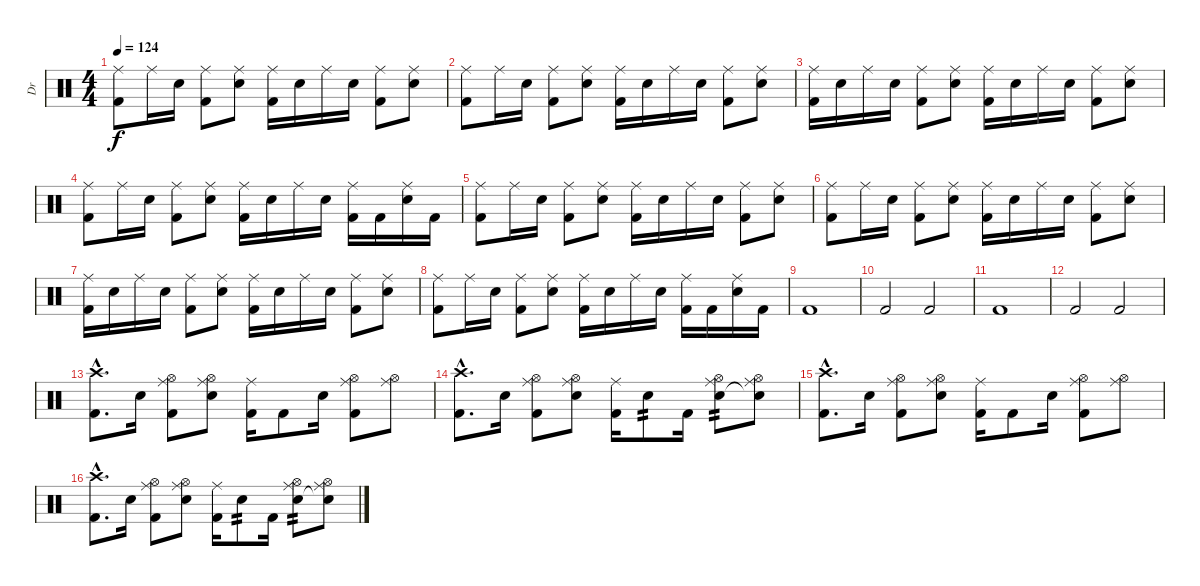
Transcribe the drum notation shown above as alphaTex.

\track ("Dr" "Dr") {instrument percussion}
\staff {score}
\articulation defaults
\ts (4 4)
\tempo 124
\clef neutral
\ks c
("Ride (middle)" "Kick (hit) 2").8{dy f} "Ride (middle)".16 "Electric Snare (hit)".16 ("Ride (middle)" "Kick (hit) 2").8 ("Ride (middle)" "Electric Snare (hit)").8 ("Ride (middle)" "Kick (hit) 2").16 "Electric Snare (hit)".16 "Ride (middle)".16 "Electric Snare (hit)".16 ("Ride (middle)" "Kick (hit) 2").8 ("Ride (middle)" "Electric Snare (hit)").8 |
("Ride (middle)" "Kick (hit) 2").8 "Ride (middle)".16 "Electric Snare (hit)".16 ("Ride (middle)" "Kick (hit) 2").8 ("Ride (middle)" "Electric Snare (hit)").8 ("Ride (middle)" "Kick (hit) 2").16 "Electric Snare (hit)".16 "Ride (middle)".16 "Electric Snare (hit)".16 ("Ride (middle)" "Kick (hit) 2").8 ("Ride (middle)" "Electric Snare (hit)").8 |
("Ride (middle)" "Kick (hit) 2").16 "Electric Snare (hit)".16 "Ride (middle)".16 "Electric Snare (hit)".16 ("Ride (middle)" "Kick (hit) 2").8 ("Ride (middle)" "Electric Snare (hit)").8 ("Ride (middle)" "Kick (hit) 2").16 "Electric Snare (hit)".16 "Ride (middle)".16 "Electric Snare (hit)".16 ("Ride (middle)" "Kick (hit) 2").8 ("Ride (middle)" "Electric Snare (hit)").8 |
("Ride (middle)" "Kick (hit) 2").8 "Ride (middle)".16 "Electric Snare (hit)".16 ("Ride (middle)" "Kick (hit) 2").8 ("Ride (middle)" "Electric Snare (hit)").8 ("Ride (middle)" "Kick (hit) 2").16 "Electric Snare (hit)".16 "Ride (middle)".16 "Electric Snare (hit)".16 ("Ride (middle)" "Kick (hit) 2").16 "Kick (hit) 2".16 ("Ride (middle)" "Electric Snare (hit)").16 "Kick (hit) 2".16 |
("Ride (middle)" "Kick (hit) 2").8 "Ride (middle)".16 "Electric Snare (hit)".16 ("Ride (middle)" "Kick (hit) 2").8 ("Ride (middle)" "Electric Snare (hit)").8 ("Ride (middle)" "Kick (hit) 2").16 "Electric Snare (hit)".16 "Ride (middle)".16 "Electric Snare (hit)".16 ("Ride (middle)" "Kick (hit) 2").8 ("Ride (middle)" "Electric Snare (hit)").8 |
("Ride (middle)" "Kick (hit) 2").8 "Ride (middle)".16 "Electric Snare (hit)".16 ("Ride (middle)" "Kick (hit) 2").8 ("Ride (middle)" "Electric Snare (hit)").8 ("Ride (middle)" "Kick (hit) 2").16 "Electric Snare (hit)".16 "Ride (middle)".16 "Electric Snare (hit)".16 ("Ride (middle)" "Kick (hit) 2").8 ("Ride (middle)" "Electric Snare (hit)").8 |
("Ride (middle)" "Kick (hit) 2").16 "Electric Snare (hit)".16 "Ride (middle)".16 "Electric Snare (hit)".16 ("Ride (middle)" "Kick (hit) 2").8 ("Ride (middle)" "Electric Snare (hit)").8 ("Ride (middle)" "Kick (hit) 2").16 "Electric Snare (hit)".16 "Ride (middle)".16 "Electric Snare (hit)".16 ("Ride (middle)" "Kick (hit) 2").8 ("Ride (middle)" "Electric Snare (hit)").8 |
("Ride (middle)" "Kick (hit) 2").8 "Ride (middle)".16 "Electric Snare (hit)".16 ("Ride (middle)" "Kick (hit) 2").8 ("Ride (middle)" "Electric Snare (hit)").8 ("Ride (middle)" "Kick (hit) 2").16 "Electric Snare (hit)".16 "Ride (middle)".16 "Electric Snare (hit)".16 ("Ride (middle)" "Kick (hit) 2").16 "Kick (hit) 2".16 ("Ride (middle)" "Electric Snare (hit)").16 "Kick (hit) 2".16 |
"Kick (hit) 2".1 |
"Kick (hit) 2".2 "Kick (hit) 2".2 |
"Kick (hit) 2".1 |
"Kick (hit) 2".2 "Kick (hit) 2".2 |
("Crash high (hit)"{hac} "Kick (hit) 2"{hac}).8{d} "Electric Snare (hit)".16 ("Ride (middle)" "Hi-Hat (open)" "Kick (hit) 2").8 ("Ride (middle)" "Hi-Hat (open)" "Electric Snare (hit)").8 ("Ride (middle)" "Kick (hit) 2").16 "Kick (hit) 2".8 "Electric Snare (hit)".16 ("Ride (middle)" "Hi-Hat (open)" "Kick (hit) 2").8 ("Ride (middle)" "Hi-Hat (open)").8 |
("Crash high (hit)"{hac} "Kick (hit) 2"{hac}).8{d} "Electric Snare (hit)".16 ("Ride (middle)" "Hi-Hat (open)" "Kick (hit) 2").8 ("Ride (middle)" "Hi-Hat (open)" "Electric Snare (hit)").8 ("Ride (middle)" "Kick (hit) 2").16 "Electric Snare (hit)".8{tp 2} "Kick (hit) 2".16 ("Ride (middle)" "Hi-Hat (open)" "Electric Snare (hit)").8{tp 2} ("Ride (middle)" "Hi-Hat (open)" "Snare (hit)"{t}).8 |
("Crash high (hit)"{hac} "Kick (hit) 2"{hac}).8{d} "Electric Snare (hit)".16 ("Ride (middle)" "Hi-Hat (open)" "Kick (hit) 2").8 ("Ride (middle)" "Hi-Hat (open)" "Electric Snare (hit)").8 ("Ride (middle)" "Kick (hit) 2").16 "Kick (hit) 2".8 "Electric Snare (hit)".16 ("Ride (middle)" "Hi-Hat (open)" "Kick (hit) 2").8 ("Ride (middle)" "Hi-Hat (open)").8 |
("Crash high (hit)"{hac} "Kick (hit) 2"{hac}).8{d} "Electric Snare (hit)".16 ("Ride (middle)" "Hi-Hat (open)" "Kick (hit) 2").8 ("Ride (middle)" "Hi-Hat (open)" "Electric Snare (hit)").8 ("Ride (middle)" "Kick (hit) 2").16 "Electric Snare (hit)".8{tp 2} "Kick (hit) 2".16 ("Ride (middle)" "Hi-Hat (open)" "Electric Snare (hit)").8{tp 2} ("Ride (middle)" "Hi-Hat (open)" "Snare (hit)"{t}).8
